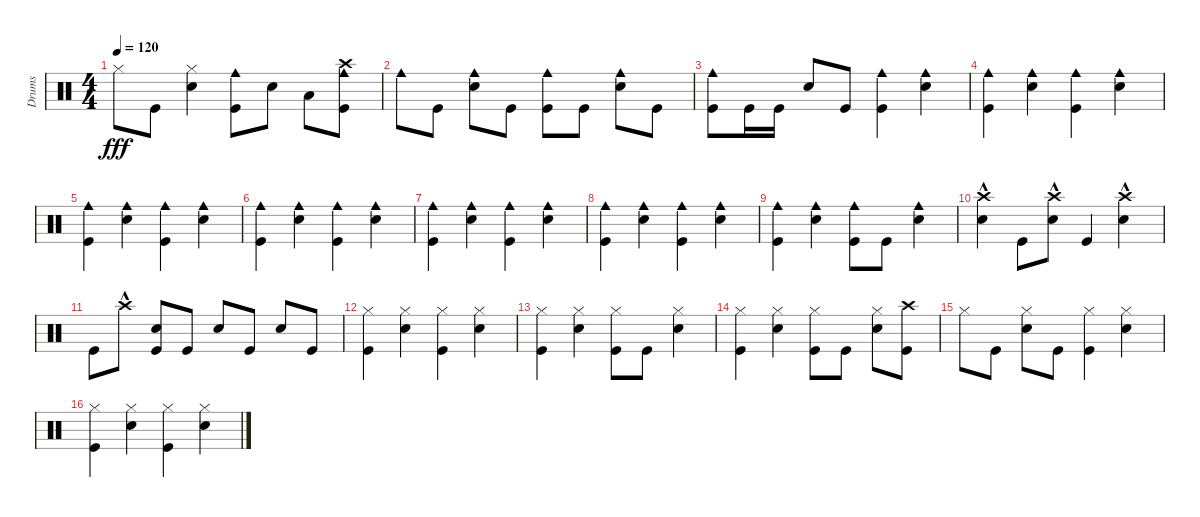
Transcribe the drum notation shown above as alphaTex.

\track ("Drums" "Drums") {instrument percussion}
\staff {score}
\articulation defaults
\ts (4 4)
\tempo 120
\clef neutral
\ks c "Hi-Hat (closed)".8{dy fff} "Kick (hit)".8
("Hi-Hat (closed)" "Snare (hit) 2").4 ("Kick (hit)" "Cowbell medium (hit)").8 "Snare (hit) 2".8 "Low Floor Tom (hit)".8 ("Kick (hit)" "Crash high (hit)" "Cowbell medium (hit)").8 |
"Cowbell medium (hit)".8 "Kick (hit)".8 ("Snare (hit) 2" "Cowbell medium (hit)").8 "Kick (hit)".8 ("Kick (hit)" "Cowbell medium (hit)").8 "Kick (hit)".8 ("Snare (hit) 2" "Cowbell medium (hit)").8 "Kick (hit)".8 |
("Kick (hit)" "Cowbell medium (hit)").8 "Kick (hit)".16 "Kick (hit)".16 "Snare (hit) 2".8 "Kick (hit)".8 ("Kick (hit)" "Cowbell medium (hit)").4 ("Cowbell medium (hit)" "Snare (hit) 2").4 |
("Cowbell medium (hit)" "Kick (hit)").4 ("Cowbell medium (hit)" "Snare (hit) 2").4 ("Cowbell medium (hit)" "Kick (hit)").4 ("Cowbell medium (hit)" "Snare (hit) 2").4 |
("Cowbell medium (hit)" "Kick (hit)").4 ("Cowbell medium (hit)" "Snare (hit) 2").4 ("Cowbell medium (hit)" "Kick (hit)").4 ("Cowbell medium (hit)" "Snare (hit) 2").4 |
("Cowbell medium (hit)" "Kick (hit)").4 ("Cowbell medium (hit)" "Snare (hit) 2").4 ("Cowbell medium (hit)" "Kick (hit)").4 ("Cowbell medium (hit)" "Snare (hit) 2").4 |
("Cowbell medium (hit)" "Kick (hit)").4 ("Cowbell medium (hit)" "Snare (hit) 2").4 ("Cowbell medium (hit)" "Kick (hit)").4 ("Cowbell medium (hit)" "Snare (hit) 2").4 |
("Cowbell medium (hit)" "Kick (hit)").4 ("Cowbell medium (hit)" "Snare (hit) 2").4 ("Cowbell medium (hit)" "Kick (hit)").4 ("Cowbell medium (hit)" "Snare (hit) 2").4 |
("Kick (hit)" "Cowbell medium (hit)").4 ("Snare (hit) 2" "Cowbell medium (hit)").4 ("Kick (hit)" "Cowbell medium (hit)").8 "Kick (hit)".8 ("Snare (hit) 2" "Cowbell medium (hit)").4 |
("Crash high (hit)"{hac} "Snare (hit) 2").4 "Kick (hit)".8 ("Crash high (hit)"{hac} "Snare (hit) 2").8 "Kick (hit)".4 ("Crash high (hit)"{hac} "Snare (hit) 2").4 |
"Kick (hit)".8 "Crash high (hit)"{hac}.8 ("Kick (hit)" "Snare (hit) 2").8 "Kick (hit)".8 "Snare (hit) 2".8 "Kick (hit)".8 "Snare (hit) 2".8 "Kick (hit)".8 |
("Hi-Hat (closed)" "Kick (hit)").4 ("Hi-Hat (closed)" "Snare (hit) 2").4 ("Hi-Hat (closed)" "Kick (hit)").4 ("Hi-Hat (closed)" "Snare (hit) 2").4 |
("Kick (hit)" "Hi-Hat (closed)").4 ("Hi-Hat (closed)" "Snare (hit) 2").4 ("Kick (hit)" "Hi-Hat (closed)").8 "Kick (hit)".8 ("Hi-Hat (closed)" "Snare (hit) 2").4 |
("Hi-Hat (closed)" "Kick (hit)").4 ("Hi-Hat (closed)" "Snare (hit) 2").4 ("Hi-Hat (closed)" "Kick (hit)").8 "Kick (hit)".8 ("Hi-Hat (closed)" "Snare (hit) 2").8 ("Crash high (hit)" "Kick (hit)").8 |
"Hi-Hat (closed)".8 "Kick (hit)".8 ("Hi-Hat (closed)" "Snare (hit) 2").8 "Kick (hit)".8 ("Kick (hit)" "Hi-Hat (closed)").4 ("Hi-Hat (closed)" "Snare (hit) 2").4 |
("Hi-Hat (closed)" "Kick (hit)").4 ("Hi-Hat (closed)" "Snare (hit) 2").4 ("Hi-Hat (closed)" "Kick (hit)").4 ("Hi-Hat (closed)" "Snare (hit) 2").4
